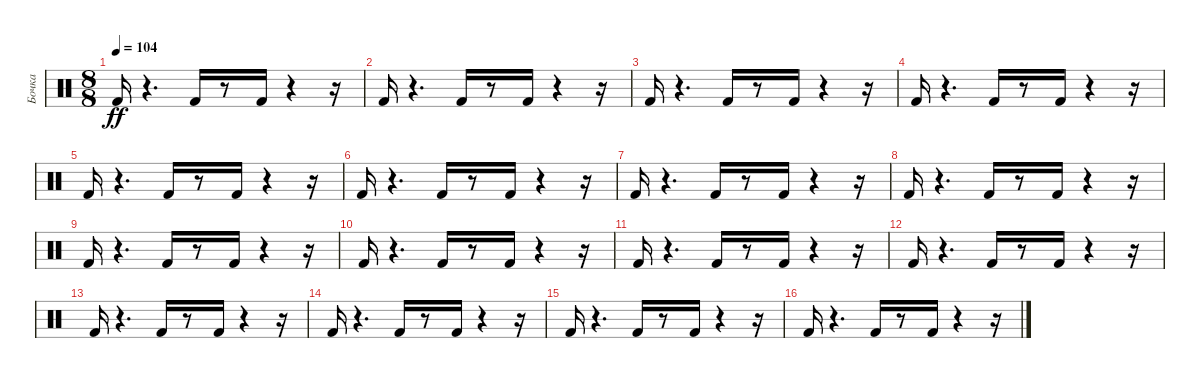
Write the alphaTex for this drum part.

\track ("Бочка" "Бочка") {instrument percussion}
\staff {score}
\articulation defaults
\ts (8 8)
\tempo 104
\clef neutral
\ks c "Kick (hit) 2".16{dy ff}
r.4{d} "Kick (hit) 2".16 r.8 "Kick (hit) 2".16 r.4 r.16 |
"Kick (hit) 2".16 r.4{d} "Kick (hit) 2".16 r.8 "Kick (hit) 2".16 r.4 r.16 |
"Kick (hit) 2".16 r.4{d} "Kick (hit) 2".16 r.8 "Kick (hit) 2".16 r.4 r.16 |
"Kick (hit) 2".16 r.4{d} "Kick (hit) 2".16 r.8 "Kick (hit) 2".16 r.4 r.16 |
"Kick (hit) 2".16 r.4{d} "Kick (hit) 2".16 r.8 "Kick (hit) 2".16 r.4 r.16 |
"Kick (hit) 2".16 r.4{d} "Kick (hit) 2".16 r.8 "Kick (hit) 2".16 r.4 r.16 |
"Kick (hit) 2".16 r.4{d} "Kick (hit) 2".16 r.8 "Kick (hit) 2".16 r.4 r.16 |
"Kick (hit) 2".16 r.4{d} "Kick (hit) 2".16 r.8 "Kick (hit) 2".16 r.4 r.16 |
"Kick (hit) 2".16 r.4{d} "Kick (hit) 2".16 r.8 "Kick (hit) 2".16 r.4 r.16 |
"Kick (hit) 2".16 r.4{d} "Kick (hit) 2".16 r.8 "Kick (hit) 2".16 r.4 r.16 |
"Kick (hit) 2".16 r.4{d} "Kick (hit) 2".16 r.8 "Kick (hit) 2".16 r.4 r.16 |
"Kick (hit) 2".16 r.4{d} "Kick (hit) 2".16 r.8 "Kick (hit) 2".16 r.4 r.16 |
"Kick (hit) 2".16 r.4{d} "Kick (hit) 2".16 r.8 "Kick (hit) 2".16 r.4 r.16 |
"Kick (hit) 2".16 r.4{d} "Kick (hit) 2".16 r.8 "Kick (hit) 2".16 r.4 r.16 |
"Kick (hit) 2".16 r.4{d} "Kick (hit) 2".16 r.8 "Kick (hit) 2".16 r.4 r.16 |
"Kick (hit) 2".16 r.4{d} "Kick (hit) 2".16 r.8 "Kick (hit) 2".16 r.4 r.16
